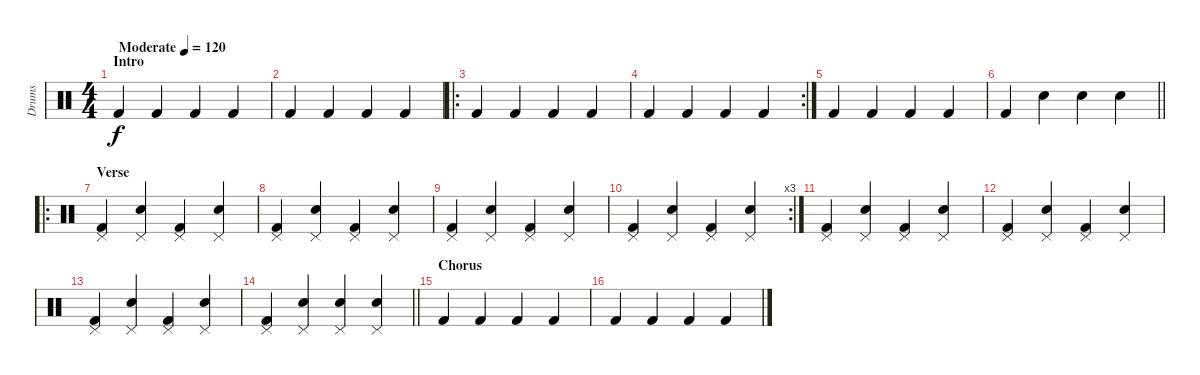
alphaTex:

\track ("Drums" "Drums") {instrument percussion}
\staff {score}
\articulation defaults
\ts (4 4)
\section ("" "Intro")
\tempo (120 "Moderate")
\clef neutral
\ks c "Kick (hit) 2".4{dy f} "Kick (hit) 2".4 "Kick (hit) 2".4 "Kick (hit) 2".4
|
"Kick (hit) 2".4 "Kick (hit) 2".4 "Kick (hit) 2".4 "Kick (hit) 2".4 |
\ro "Kick (hit) 2".4 "Kick (hit) 2".4 "Kick (hit) 2".4 "Kick (hit) 2".4
|
\rc 2 "Kick (hit) 2".4 "Kick (hit) 2".4 "Kick (hit) 2".4 "Kick (hit) 2".4
|
"Kick (hit) 2".4 "Kick (hit) 2".4 "Kick (hit) 2".4 "Kick (hit) 2".4 |
\barLineRight lightlight "Kick (hit) 2".4 "Snare (hit) 2".4 "Snare (hit) 2".4 "Snare (hit) 2".4
|
\ro
\section ("" "Verse")
("Kick (hit) 2" "Pedal Hi-Hat (hit)").4 ("Snare (hit) 2" "Pedal Hi-Hat (hit)").4 ("Kick (hit) 2" "Pedal Hi-Hat (hit)").4 ("Snare (hit) 2" "Pedal Hi-Hat (hit)").4 |
("Kick (hit) 2" "Pedal Hi-Hat (hit)").4 ("Snare (hit) 2" "Pedal Hi-Hat (hit)").4 ("Kick (hit) 2" "Pedal Hi-Hat (hit)").4 ("Snare (hit) 2" "Pedal Hi-Hat (hit)").4 |
("Kick (hit) 2" "Pedal Hi-Hat (hit)").4 ("Snare (hit) 2" "Pedal Hi-Hat (hit)").4 ("Kick (hit) 2" "Pedal Hi-Hat (hit)").4 ("Snare (hit) 2" "Pedal Hi-Hat (hit)").4 |
\rc 3
("Kick (hit) 2" "Pedal Hi-Hat (hit)").4 ("Snare (hit) 2" "Pedal Hi-Hat (hit)").4 ("Kick (hit) 2" "Pedal Hi-Hat (hit)").4 ("Snare (hit) 2" "Pedal Hi-Hat (hit)").4 |
("Kick (hit) 2" "Pedal Hi-Hat (hit)").4 ("Snare (hit) 2" "Pedal Hi-Hat (hit)").4 ("Kick (hit) 2" "Pedal Hi-Hat (hit)").4 ("Snare (hit) 2" "Pedal Hi-Hat (hit)").4 |
("Kick (hit) 2" "Pedal Hi-Hat (hit)").4 ("Snare (hit) 2" "Pedal Hi-Hat (hit)").4 ("Kick (hit) 2" "Pedal Hi-Hat (hit)").4 ("Snare (hit) 2" "Pedal Hi-Hat (hit)").4 |
("Kick (hit) 2" "Pedal Hi-Hat (hit)").4 ("Snare (hit) 2" "Pedal Hi-Hat (hit)").4 ("Kick (hit) 2" "Pedal Hi-Hat (hit)").4 ("Snare (hit) 2" "Pedal Hi-Hat (hit)").4 |
\barLineRight lightlight
("Kick (hit) 2" "Pedal Hi-Hat (hit)").4 ("Snare (hit) 2" "Pedal Hi-Hat (hit)").4 ("Snare (hit) 2" "Pedal Hi-Hat (hit)").4 ("Snare (hit) 2" "Pedal Hi-Hat (hit)").4 |
\section ("" "Chorus")
"Kick (hit) 2".4 "Kick (hit) 2".4 "Kick (hit) 2".4 "Kick (hit) 2".4 |
"Kick (hit) 2".4 "Kick (hit) 2".4 "Kick (hit) 2".4 "Kick (hit) 2".4
